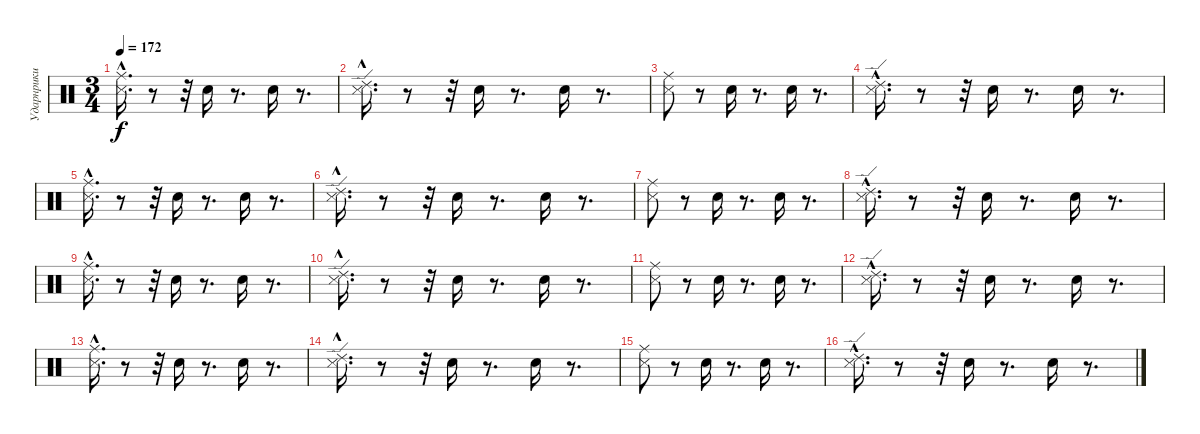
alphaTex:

\track ("Ударнрики" "Ударнрики") {instrument percussion}
\staff {score}
\articulation defaults
\ts (3 4)
\tempo 172
\clef neutral
\ks c
("Ride (middle)" "Metronome (hit)"{hac}).16{d dy f} r.8 r.32 "Electric Snare (hit)".16 r.8{d} "Electric Snare (hit)".16 r.8{d} |
("Ride (edge) 2" "Metronome (hit)"{hac}).16{d} r.8 r.32 "Electric Snare (hit)".16 r.8{d} "Electric Snare (hit)".16 r.8{d} |
("Ride (middle)" "Metronome (hit)").8 r.8 "Electric Snare (hit)".16 r.8{d} "Electric Snare (hit)".16 r.8{d} |
("Ride (edge) 2"{hac} "Metronome (hit)"{hac}).16{d} r.8 r.32 "Electric Snare (hit)".16 r.8{d} "Electric Snare (hit)".16 r.8{d} |
("Ride (middle)" "Metronome (hit)"{hac}).16{d} r.8 r.32 "Electric Snare (hit)".16 r.8{d} "Electric Snare (hit)".16 r.8{d} |
("Ride (edge) 2" "Metronome (hit)"{hac}).16{d} r.8 r.32 "Electric Snare (hit)".16 r.8{d} "Electric Snare (hit)".16 r.8{d} |
("Ride (middle)" "Metronome (hit)").8 r.8 "Electric Snare (hit)".16 r.8{d} "Electric Snare (hit)".16 r.8{d} |
("Ride (edge) 2"{hac} "Metronome (hit)"{hac}).16{d} r.8 r.32 "Electric Snare (hit)".16 r.8{d} "Electric Snare (hit)".16 r.8{d} |
("Ride (middle)" "Metronome (hit)"{hac}).16{d} r.8 r.32 "Electric Snare (hit)".16 r.8{d} "Electric Snare (hit)".16 r.8{d} |
("Ride (edge) 2" "Metronome (hit)"{hac}).16{d} r.8 r.32 "Electric Snare (hit)".16 r.8{d} "Electric Snare (hit)".16 r.8{d} |
("Ride (middle)" "Metronome (hit)").8 r.8 "Electric Snare (hit)".16 r.8{d} "Electric Snare (hit)".16 r.8{d} |
("Ride (edge) 2"{hac} "Metronome (hit)"{hac}).16{d} r.8 r.32 "Electric Snare (hit)".16 r.8{d} "Electric Snare (hit)".16 r.8{d} |
("Ride (middle)" "Metronome (hit)"{hac}).16{d} r.8 r.32 "Electric Snare (hit)".16 r.8{d} "Electric Snare (hit)".16 r.8{d} |
("Ride (edge) 2" "Metronome (hit)"{hac}).16{d} r.8 r.32 "Electric Snare (hit)".16 r.8{d} "Electric Snare (hit)".16 r.8{d} |
("Ride (middle)" "Metronome (hit)").8 r.8 "Electric Snare (hit)".16 r.8{d} "Electric Snare (hit)".16 r.8{d} |
("Ride (edge) 2"{hac} "Metronome (hit)"{hac}).16{d} r.8 r.32 "Electric Snare (hit)".16 r.8{d} "Electric Snare (hit)".16 r.8{d}
